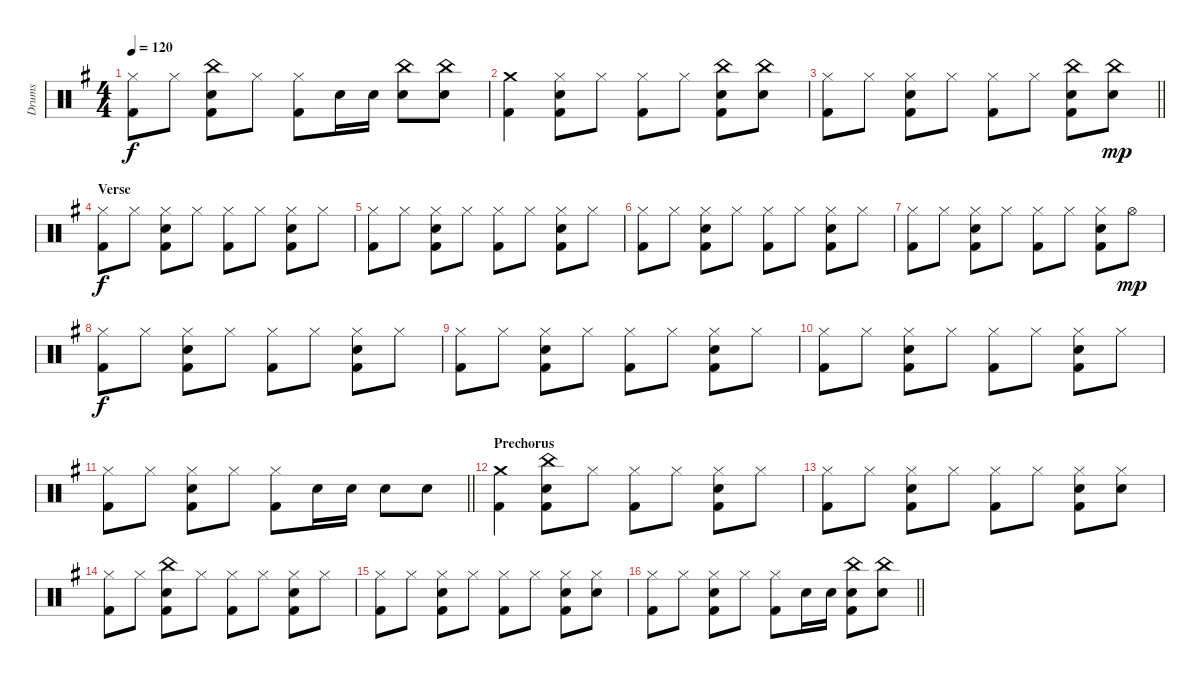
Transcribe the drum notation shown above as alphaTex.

\track ("Drums" "Drums") {instrument percussion}
\staff {score}
\articulation defaults
\ts (4 4)
\tempo 120
\clef neutral
\ks g
("Hi-Hat (closed)" "Kick (hit) 2").8{dy f} "Hi-Hat (closed)".8 ("China (hit)" "Electric Snare (hit)" "Kick (hit) 2").8 "Hi-Hat (closed)".8 ("Hi-Hat (closed)" "Kick (hit) 2").8 "Electric Snare (hit)".16 "Electric Snare (hit)".16 ("China (hit)" "Electric Snare (hit)").8 ("China (hit)" "Electric Snare (hit)").8 |
("Crash medium (hit)" "Kick (hit) 2").4 ("Hi-Hat (closed)" "Electric Snare (hit)" "Kick (hit) 2").8 "Hi-Hat (closed)".8 ("Hi-Hat (closed)" "Kick (hit) 2").8 "Hi-Hat (closed)".8 ("China (hit)" "Electric Snare (hit)" "Kick (hit) 2").8 ("China (hit)" "Electric Snare (hit)").8 |
\barLineRight lightlight
("Hi-Hat (closed)" "Kick (hit) 2").8 "Hi-Hat (closed)".8 ("Hi-Hat (closed)" "Electric Snare (hit)" "Kick (hit) 2").8 "Hi-Hat (closed)".8 ("Hi-Hat (closed)" "Kick (hit) 2").8 "Hi-Hat (closed)".8 ("China (hit)" "Electric Snare (hit)" "Kick (hit) 2").8 ("China (hit)" "Electric Snare (hit)").8{dy mp} |
\section ("" "Verse")
("Hi-Hat (closed)" "Kick (hit) 2").8{dy f} "Hi-Hat (closed)".8 ("Hi-Hat (closed)" "Electric Snare (hit)" "Kick (hit) 2").8 "Hi-Hat (closed)".8 ("Hi-Hat (closed)" "Kick (hit) 2").8 "Hi-Hat (closed)".8 ("Hi-Hat (closed)" "Electric Snare (hit)" "Kick (hit) 2").8 "Hi-Hat (closed)".8 |
("Hi-Hat (closed)" "Kick (hit) 2").8 "Hi-Hat (closed)".8 ("Hi-Hat (closed)" "Electric Snare (hit)" "Kick (hit) 2").8 "Hi-Hat (closed)".8 ("Hi-Hat (closed)" "Kick (hit) 2").8 "Hi-Hat (closed)".8 ("Hi-Hat (closed)" "Electric Snare (hit)" "Kick (hit) 2").8 "Hi-Hat (closed)".8 |
("Hi-Hat (closed)" "Kick (hit) 2").8 "Hi-Hat (closed)".8 ("Hi-Hat (closed)" "Electric Snare (hit)" "Kick (hit) 2").8 "Hi-Hat (closed)".8 ("Hi-Hat (closed)" "Kick (hit) 2").8 "Hi-Hat (closed)".8 ("Hi-Hat (closed)" "Electric Snare (hit)" "Kick (hit) 2").8 "Hi-Hat (closed)".8 |
("Hi-Hat (closed)" "Kick (hit) 2").8 "Hi-Hat (closed)".8 ("Hi-Hat (closed)" "Electric Snare (hit)" "Kick (hit) 2").8 "Hi-Hat (closed)".8 ("Hi-Hat (closed)" "Kick (hit) 2").8 "Hi-Hat (closed)".8 ("Hi-Hat (closed)" "Electric Snare (hit)" "Kick (hit) 2").8 "Hi-Hat (open)".8{dy mp} |
("Hi-Hat (closed)" "Kick (hit) 2").8{dy f} "Hi-Hat (closed)".8 ("Hi-Hat (closed)" "Electric Snare (hit)" "Kick (hit) 2").8 "Hi-Hat (closed)".8 ("Hi-Hat (closed)" "Kick (hit) 2").8 "Hi-Hat (closed)".8 ("Hi-Hat (closed)" "Electric Snare (hit)" "Kick (hit) 2").8 "Hi-Hat (closed)".8 |
("Hi-Hat (closed)" "Kick (hit) 2").8 "Hi-Hat (closed)".8 ("Hi-Hat (closed)" "Electric Snare (hit)" "Kick (hit) 2").8 "Hi-Hat (closed)".8 ("Hi-Hat (closed)" "Kick (hit) 2").8 "Hi-Hat (closed)".8 ("Hi-Hat (closed)" "Electric Snare (hit)" "Kick (hit) 2").8 "Hi-Hat (closed)".8 |
("Hi-Hat (closed)" "Kick (hit) 2").8 "Hi-Hat (closed)".8 ("Hi-Hat (closed)" "Electric Snare (hit)" "Kick (hit) 2").8 "Hi-Hat (closed)".8 ("Hi-Hat (closed)" "Kick (hit) 2").8 "Hi-Hat (closed)".8 ("Hi-Hat (closed)" "Electric Snare (hit)" "Kick (hit) 2").8 "Hi-Hat (closed)".8 |
\barLineRight lightlight
("Hi-Hat (closed)" "Kick (hit) 2").8 "Hi-Hat (closed)".8 ("Hi-Hat (closed)" "Electric Snare (hit)" "Kick (hit) 2").8 "Hi-Hat (closed)".8 ("Hi-Hat (closed)" "Kick (hit) 2").8 "Electric Snare (hit)".16 "Electric Snare (hit)".16 "Electric Snare (hit)".8 "Electric Snare (hit)".8 |
\section ("" "Prechorus")
("Crash medium (hit)" "Kick (hit) 2").4 ("China (hit)" "Electric Snare (hit)" "Kick (hit) 2").8 "Hi-Hat (closed)".8 ("Hi-Hat (closed)" "Kick (hit) 2").8 "Hi-Hat (closed)".8 ("Hi-Hat (closed)" "Electric Snare (hit)" "Kick (hit) 2").8 "Hi-Hat (closed)".8 |
("Hi-Hat (closed)" "Kick (hit) 2").8 "Hi-Hat (closed)".8 ("Hi-Hat (closed)" "Electric Snare (hit)" "Kick (hit) 2").8 "Hi-Hat (closed)".8 ("Hi-Hat (closed)" "Kick (hit) 2").8 "Hi-Hat (closed)".8 ("Hi-Hat (closed)" "Electric Snare (hit)" "Kick (hit) 2").8 ("Hi-Hat (closed)" "Electric Snare (hit)").8 |
("Hi-Hat (closed)" "Kick (hit) 2").8 "Hi-Hat (closed)".8 ("China (hit)" "Electric Snare (hit)" "Kick (hit) 2").8 "Hi-Hat (closed)".8 ("Hi-Hat (closed)" "Kick (hit) 2").8 "Hi-Hat (closed)".8 ("Hi-Hat (closed)" "Electric Snare (hit)" "Kick (hit) 2").8 "Hi-Hat (closed)".8 |
("Hi-Hat (closed)" "Kick (hit) 2").8 "Hi-Hat (closed)".8 ("Hi-Hat (closed)" "Electric Snare (hit)" "Kick (hit) 2").8 "Hi-Hat (closed)".8 ("Hi-Hat (closed)" "Kick (hit) 2").8 "Hi-Hat (closed)".8 ("Hi-Hat (closed)" "Electric Snare (hit)" "Kick (hit) 2").8 ("Hi-Hat (closed)" "Electric Snare (hit)").8 |
\barLineRight lightlight
("Hi-Hat (closed)" "Kick (hit) 2").8 "Hi-Hat (closed)".8 ("Hi-Hat (closed)" "Electric Snare (hit)" "Kick (hit) 2").8 "Hi-Hat (closed)".8 ("Hi-Hat (closed)" "Kick (hit) 2").8 "Electric Snare (hit)".16 "Electric Snare (hit)".16 ("China (hit)" "Electric Snare (hit)" "Kick (hit) 2").8 ("China (hit)" "Electric Snare (hit)").8
